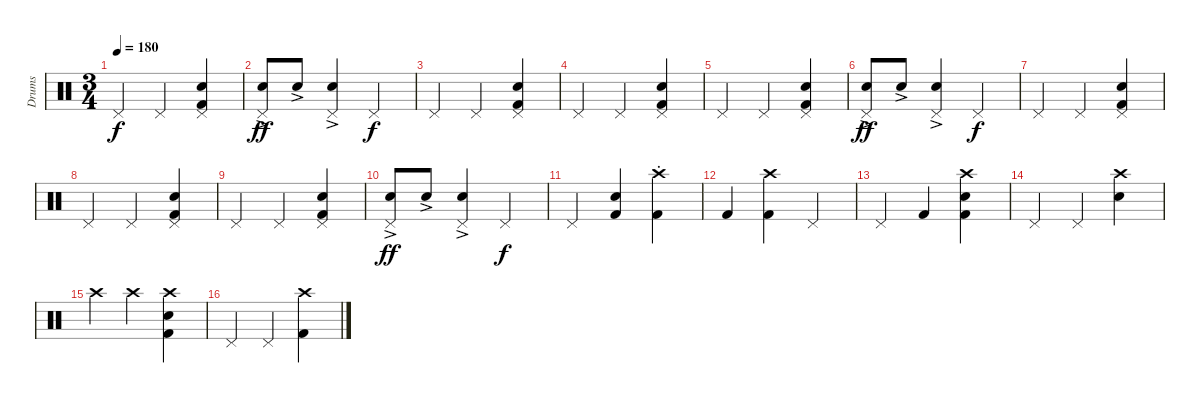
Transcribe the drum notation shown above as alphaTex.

\track ("Drums" "Drums") {instrument percussion}
\staff {score}
\articulation defaults
\ts (3 4)
\tempo 180
\clef neutral
\ks c "Pedal Hi-Hat (hit)".4{dy f} "Pedal Hi-Hat (hit)".4
("Snare (hit) 2" "Pedal Hi-Hat (hit)" "Kick (hit) 2").4 |
("Snare (hit) 2"{ac} "Pedal Hi-Hat (hit)").8{dy ff} "Snare (hit) 2"{ac}.8 ("Snare (hit) 2"{ac} "Pedal Hi-Hat (hit)").4 "Pedal Hi-Hat (hit)".4{dy f} |
"Pedal Hi-Hat (hit)".4 "Pedal Hi-Hat (hit)".4 ("Snare (hit) 2" "Pedal Hi-Hat (hit)" "Kick (hit) 2").4 |
"Pedal Hi-Hat (hit)".4 "Pedal Hi-Hat (hit)".4 ("Snare (hit) 2" "Pedal Hi-Hat (hit)" "Kick (hit) 2").4 |
"Pedal Hi-Hat (hit)".4 "Pedal Hi-Hat (hit)".4 ("Snare (hit) 2" "Pedal Hi-Hat (hit)" "Kick (hit) 2").4 |
("Snare (hit) 2"{ac} "Pedal Hi-Hat (hit)").8{dy ff} "Snare (hit) 2"{ac}.8 ("Snare (hit) 2"{ac} "Pedal Hi-Hat (hit)").4 "Pedal Hi-Hat (hit)".4{dy f} |
"Pedal Hi-Hat (hit)".4 "Pedal Hi-Hat (hit)".4 ("Snare (hit) 2" "Pedal Hi-Hat (hit)" "Kick (hit) 2").4 |
"Pedal Hi-Hat (hit)".4 "Pedal Hi-Hat (hit)".4 ("Snare (hit) 2" "Pedal Hi-Hat (hit)" "Kick (hit) 2").4 |
"Pedal Hi-Hat (hit)".4 "Pedal Hi-Hat (hit)".4 ("Snare (hit) 2" "Pedal Hi-Hat (hit)" "Kick (hit) 2").4 |
("Snare (hit) 2"{ac} "Pedal Hi-Hat (hit)").8{dy ff} "Snare (hit) 2"{ac}.8 ("Snare (hit) 2"{ac} "Pedal Hi-Hat (hit)").4 "Pedal Hi-Hat (hit)".4{dy f} |
"Pedal Hi-Hat (hit)".4 ("Snare (hit) 2" "Kick (hit) 2").4 ("Crash high (hit)"{st} "Kick (hit) 2").4 |
"Kick (hit) 2".4 ("Crash high (hit)" "Kick (hit) 2").4 "Pedal Hi-Hat (hit)".4 |
"Pedal Hi-Hat (hit)".4 "Kick (hit) 2".4 ("Crash high (hit)" "Snare (hit) 2" "Kick (hit) 2").4 |
"Pedal Hi-Hat (hit)".4 "Pedal Hi-Hat (hit)".4 ("Crash high (hit)" "Snare (hit) 2").4 |
"Crash high (hit)".4 "Crash high (hit)".4 ("Crash high (hit)" "Snare (hit) 2" "Kick (hit) 2").4 |
"Pedal Hi-Hat (hit)".4 "Pedal Hi-Hat (hit)".4 ("Crash high (hit)" "Kick (hit) 2").4
